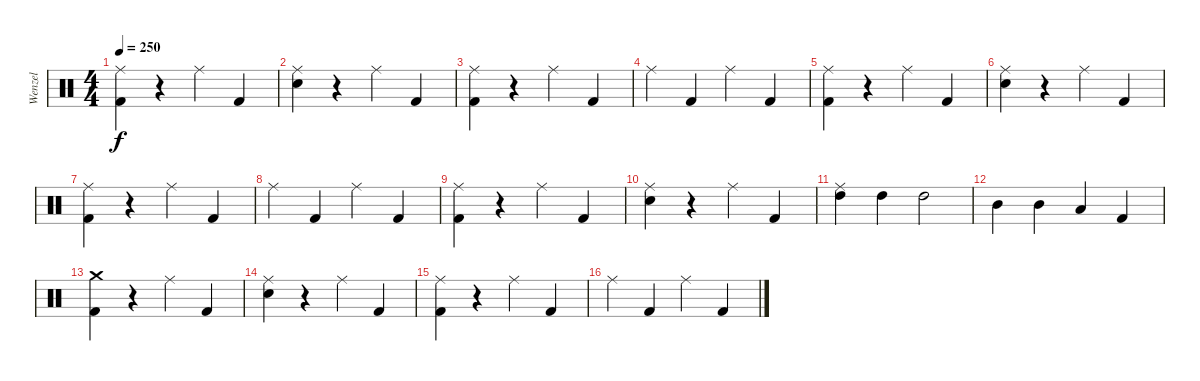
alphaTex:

\track ("Wenzel" "Wenzel") {instrument percussion}
\staff {score}
\articulation defaults
\ts (4 4)
\tempo 250
\clef neutral
\ks c
("Ride (middle)" "Kick (hit) 2").4{dy f} r.4 "Ride (middle)".4 "Kick (hit) 2".4 |
("Ride (middle)" "Snare (hit) 2").4 r.4 "Ride (middle)".4 "Kick (hit) 2".4 |
("Ride (middle)" "Kick (hit) 2").4 r.4 "Ride (middle)".4 "Kick (hit) 2".4 |
"Ride (middle)".4 "Kick (hit) 2".4 "Ride (middle)".4 "Kick (hit) 2".4 |
("Ride (middle)" "Kick (hit) 2").4 r.4 "Ride (middle)".4 "Kick (hit) 2".4 |
("Ride (middle)" "Snare (hit) 2").4 r.4 "Ride (middle)".4 "Kick (hit) 2".4 |
("Ride (middle)" "Kick (hit) 2").4 r.4 "Ride (middle)".4 "Kick (hit) 2".4 |
"Ride (middle)".4 "Kick (hit) 2".4 "Ride (middle)".4 "Kick (hit) 2".4 |
("Ride (middle)" "Kick (hit) 2").4 r.4 "Ride (middle)".4 "Kick (hit) 2".4 |
("Ride (middle)" "Snare (hit) 2").4 r.4 "Ride (middle)".4 "Kick (hit) 2".4 |
("High Tom (hit)" "Ride (middle)").4 "High Tom (hit)".4 "High Tom (hit)".2 |
"Mid Tom (hit)".4 "Mid Tom (hit)".4 "Low Tom (hit)".4 "Kick (hit) 2".4 |
("Crash medium (hit)" "Kick (hit) 2").4 r.4 "Ride (middle)".4 "Kick (hit) 2".4 |
("Ride (middle)" "Snare (hit) 2").4 r.4 "Ride (middle)".4 "Kick (hit) 2".4 |
("Ride (middle)" "Kick (hit) 2").4 r.4 "Ride (middle)".4 "Kick (hit) 2".4 |
"Ride (middle)".4 "Kick (hit) 2".4 "Ride (middle)".4 "Kick (hit) 2".4
